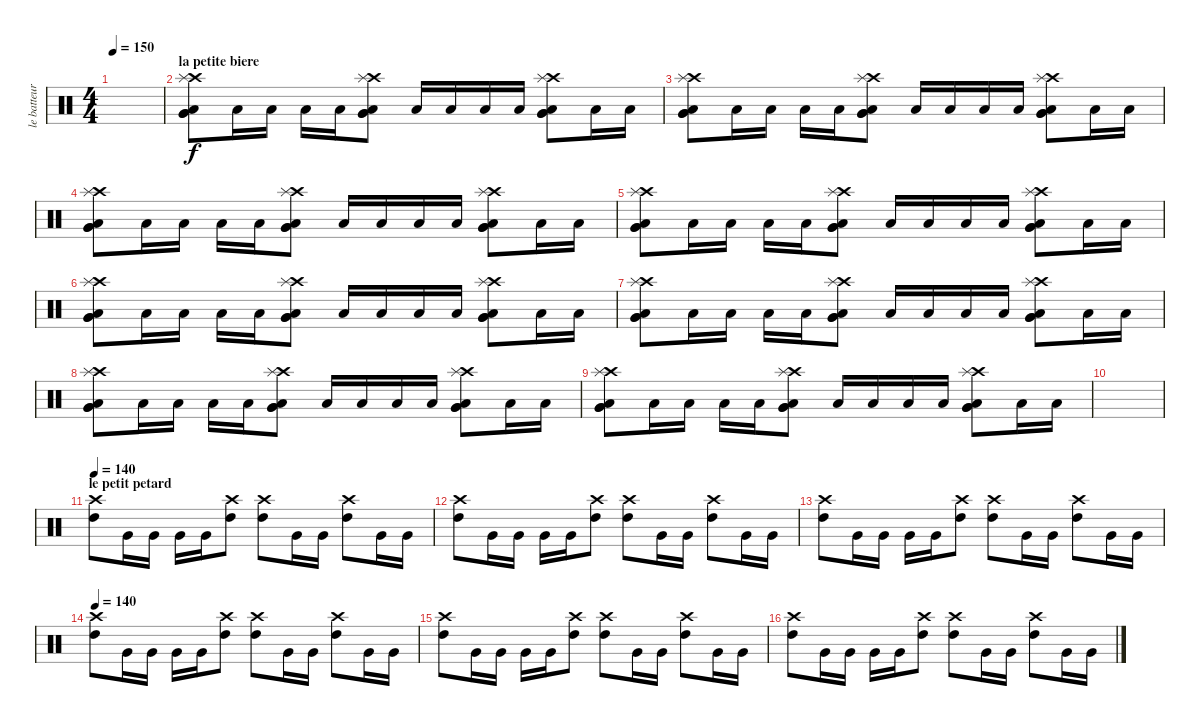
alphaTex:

\track ("le batteur" "le batteur") {instrument percussion}
\staff {score}
\articulation defaults
\ts (4 4)
\tempo 150
\clef neutral
\ks c
|
\section ("" "la petite biere")
("Very Low Tom (hit)" "Low Tom (hit)" "Crash high (hit)" "Very Low Tom (hit)" "Splash (hit)").8 "Low Tom (hit)".16 "Low Tom (hit)".16 "Low Tom (hit)".16 "Low Tom (hit)".16 ("Crash high (hit)" "Splash (hit)" "Very Low Tom (hit)" "Low Tom (hit)" "Very Low Tom (hit)").8 "Low Tom (hit)".16 "Low Tom (hit)".16 "Low Tom (hit)".16 "Low Tom (hit)".16 ("Crash high (hit)" "Splash (hit)" "Very Low Tom (hit)" "Low Tom (hit)" "Very Low Tom (hit)").8 "Low Tom (hit)".16 "Low Tom (hit)".16 |
("Very Low Tom (hit)" "Low Tom (hit)" "Crash high (hit)" "Very Low Tom (hit)" "Splash (hit)").8 "Low Tom (hit)".16 "Low Tom (hit)".16 "Low Tom (hit)".16 "Low Tom (hit)".16 ("Crash high (hit)" "Splash (hit)" "Very Low Tom (hit)" "Low Tom (hit)" "Very Low Tom (hit)").8 "Low Tom (hit)".16 "Low Tom (hit)".16 "Low Tom (hit)".16 "Low Tom (hit)".16 ("Crash high (hit)" "Splash (hit)" "Very Low Tom (hit)" "Low Tom (hit)" "Very Low Tom (hit)").8 "Low Tom (hit)".16 "Low Tom (hit)".16 |
("Very Low Tom (hit)" "Low Tom (hit)" "Crash high (hit)" "Very Low Tom (hit)" "Splash (hit)").8 "Low Tom (hit)".16 "Low Tom (hit)".16 "Low Tom (hit)".16 "Low Tom (hit)".16 ("Crash high (hit)" "Splash (hit)" "Very Low Tom (hit)" "Low Tom (hit)" "Very Low Tom (hit)").8 "Low Tom (hit)".16 "Low Tom (hit)".16 "Low Tom (hit)".16 "Low Tom (hit)".16 ("Crash high (hit)" "Splash (hit)" "Very Low Tom (hit)" "Low Tom (hit)" "Very Low Tom (hit)").8 "Low Tom (hit)".16 "Low Tom (hit)".16 |
("Very Low Tom (hit)" "Low Tom (hit)" "Crash high (hit)" "Very Low Tom (hit)" "Splash (hit)").8 "Low Tom (hit)".16 "Low Tom (hit)".16 "Low Tom (hit)".16 "Low Tom (hit)".16 ("Crash high (hit)" "Splash (hit)" "Very Low Tom (hit)" "Low Tom (hit)" "Very Low Tom (hit)").8 "Low Tom (hit)".16 "Low Tom (hit)".16 "Low Tom (hit)".16 "Low Tom (hit)".16 ("Crash high (hit)" "Splash (hit)" "Very Low Tom (hit)" "Low Tom (hit)" "Very Low Tom (hit)").8 "Low Tom (hit)".16 "Low Tom (hit)".16 |
("Very Low Tom (hit)" "Low Tom (hit)" "Crash high (hit)" "Very Low Tom (hit)" "Splash (hit)").8 "Low Tom (hit)".16 "Low Tom (hit)".16 "Low Tom (hit)".16 "Low Tom (hit)".16 ("Crash high (hit)" "Splash (hit)" "Very Low Tom (hit)" "Low Tom (hit)" "Very Low Tom (hit)").8 "Low Tom (hit)".16 "Low Tom (hit)".16 "Low Tom (hit)".16 "Low Tom (hit)".16 ("Crash high (hit)" "Splash (hit)" "Very Low Tom (hit)" "Low Tom (hit)" "Very Low Tom (hit)").8 "Low Tom (hit)".16 "Low Tom (hit)".16 |
("Very Low Tom (hit)" "Low Tom (hit)" "Crash high (hit)" "Very Low Tom (hit)" "Splash (hit)").8 "Low Tom (hit)".16 "Low Tom (hit)".16 "Low Tom (hit)".16 "Low Tom (hit)".16 ("Crash high (hit)" "Splash (hit)" "Very Low Tom (hit)" "Low Tom (hit)" "Very Low Tom (hit)").8 "Low Tom (hit)".16 "Low Tom (hit)".16 "Low Tom (hit)".16 "Low Tom (hit)".16 ("Crash high (hit)" "Splash (hit)" "Very Low Tom (hit)" "Low Tom (hit)" "Very Low Tom (hit)").8 "Low Tom (hit)".16 "Low Tom (hit)".16 |
("Very Low Tom (hit)" "Low Tom (hit)" "Crash high (hit)" "Very Low Tom (hit)" "Splash (hit)").8 "Low Tom (hit)".16 "Low Tom (hit)".16 "Low Tom (hit)".16 "Low Tom (hit)".16 ("Crash high (hit)" "Splash (hit)" "Very Low Tom (hit)" "Low Tom (hit)" "Very Low Tom (hit)").8 "Low Tom (hit)".16 "Low Tom (hit)".16 "Low Tom (hit)".16 "Low Tom (hit)".16 ("Crash high (hit)" "Splash (hit)" "Very Low Tom (hit)" "Low Tom (hit)" "Very Low Tom (hit)").8 "Low Tom (hit)".16 "Low Tom (hit)".16 |
("Very Low Tom (hit)" "Low Tom (hit)" "Crash high (hit)" "Very Low Tom (hit)" "Splash (hit)").8 "Low Tom (hit)".16 "Low Tom (hit)".16 "Low Tom (hit)".16 "Low Tom (hit)".16 ("Crash high (hit)" "Splash (hit)" "Very Low Tom (hit)" "Low Tom (hit)" "Very Low Tom (hit)").8 "Low Tom (hit)".16 "Low Tom (hit)".16 "Low Tom (hit)".16 "Low Tom (hit)".16 ("Crash high (hit)" "Splash (hit)" "Very Low Tom (hit)" "Low Tom (hit)" "Very Low Tom (hit)").8 "Low Tom (hit)".16 "Low Tom (hit)".16 |
|
\section ("" "le petit petard")
\tempo 140
("Crash high (hit)" "High Tom (hit)").8 "Very Low Tom (hit)".16 "Very Low Tom (hit)".16 "Very Low Tom (hit)".16 "Very Low Tom (hit)".16 ("Crash high (hit)" "High Tom (hit)").8 ("Crash high (hit)" "High Tom (hit)").8 "Very Low Tom (hit)".16 "Very Low Tom (hit)".16 ("Crash high (hit)" "High Tom (hit)").8 "Very Low Tom (hit)".16 "Very Low Tom (hit)".16 |
("Crash high (hit)" "High Tom (hit)").8 "Very Low Tom (hit)".16 "Very Low Tom (hit)".16 "Very Low Tom (hit)".16 "Very Low Tom (hit)".16 ("Crash high (hit)" "High Tom (hit)").8 ("Crash high (hit)" "High Tom (hit)").8 "Very Low Tom (hit)".16 "Very Low Tom (hit)".16 ("Crash high (hit)" "High Tom (hit)").8 "Very Low Tom (hit)".16 "Very Low Tom (hit)".16 |
("Crash high (hit)" "High Tom (hit)").8 "Very Low Tom (hit)".16 "Very Low Tom (hit)".16 "Very Low Tom (hit)".16 "Very Low Tom (hit)".16 ("Crash high (hit)" "High Tom (hit)").8 ("Crash high (hit)" "High Tom (hit)").8 "Very Low Tom (hit)".16 "Very Low Tom (hit)".16 ("Crash high (hit)" "High Tom (hit)").8 "Very Low Tom (hit)".16 "Very Low Tom (hit)".16 |
\tempo 140
("Crash high (hit)" "High Tom (hit)").8 "Very Low Tom (hit)".16 "Very Low Tom (hit)".16 "Very Low Tom (hit)".16 "Very Low Tom (hit)".16 ("Crash high (hit)" "High Tom (hit)").8 ("Crash high (hit)" "High Tom (hit)").8 "Very Low Tom (hit)".16 "Very Low Tom (hit)".16 ("Crash high (hit)" "High Tom (hit)").8 "Very Low Tom (hit)".16 "Very Low Tom (hit)".16 |
("Crash high (hit)" "High Tom (hit)").8 "Very Low Tom (hit)".16 "Very Low Tom (hit)".16 "Very Low Tom (hit)".16 "Very Low Tom (hit)".16 ("Crash high (hit)" "High Tom (hit)").8 ("Crash high (hit)" "High Tom (hit)").8 "Very Low Tom (hit)".16 "Very Low Tom (hit)".16 ("Crash high (hit)" "High Tom (hit)").8 "Very Low Tom (hit)".16 "Very Low Tom (hit)".16 |
("Crash high (hit)" "High Tom (hit)").8 "Very Low Tom (hit)".16 "Very Low Tom (hit)".16 "Very Low Tom (hit)".16 "Very Low Tom (hit)".16 ("Crash high (hit)" "High Tom (hit)").8 ("Crash high (hit)" "High Tom (hit)").8 "Very Low Tom (hit)".16 "Very Low Tom (hit)".16 ("Crash high (hit)" "High Tom (hit)").8 "Very Low Tom (hit)".16 "Very Low Tom (hit)".16
